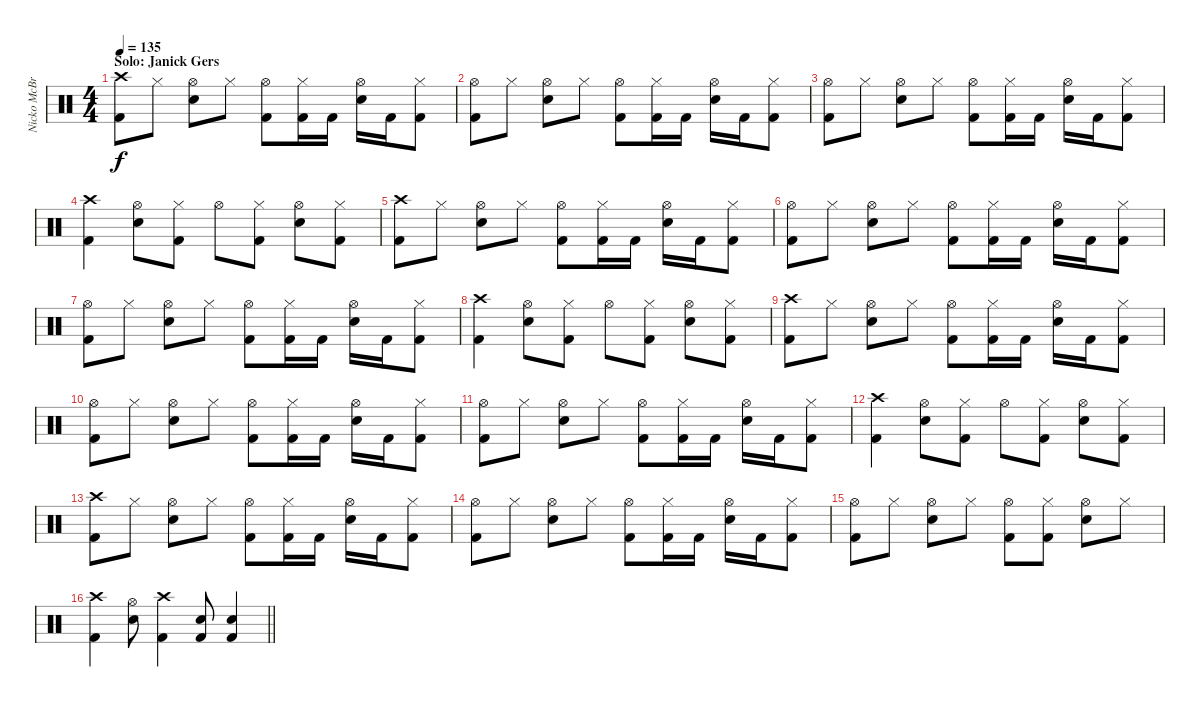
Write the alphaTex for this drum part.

\track ("Nicko McBrain" "Nicko McBr") {instrument percussion}
\staff {score}
\articulation defaults
\ts (4 4)
\section ("" "Solo: Janick Gers")
\tempo 135
\clef neutral
\ks c
("Crash high (hit)" "Kick (hit) 2").8{dy f} "Hi-Hat (closed)".8 ("Hi-Hat (open)" "Electric Snare (hit)").8 "Hi-Hat (closed)".8 ("Hi-Hat (open)" "Kick (hit) 2").8 ("Hi-Hat (closed)" "Kick (hit) 2").16 "Kick (hit) 2".16 ("Hi-Hat (open)" "Electric Snare (hit)").16 "Kick (hit) 2".16 ("Hi-Hat (closed)" "Kick (hit) 2").8 |
("Hi-Hat (open)" "Kick (hit) 2").8 "Hi-Hat (closed)".8 ("Hi-Hat (open)" "Electric Snare (hit)").8 "Hi-Hat (closed)".8 ("Hi-Hat (open)" "Kick (hit) 2").8 ("Hi-Hat (closed)" "Kick (hit) 2").16 "Kick (hit) 2".16 ("Hi-Hat (open)" "Electric Snare (hit)").16 "Kick (hit) 2".16 ("Hi-Hat (closed)" "Kick (hit) 2").8 |
("Hi-Hat (open)" "Kick (hit) 2").8 "Hi-Hat (closed)".8 ("Hi-Hat (open)" "Electric Snare (hit)").8 "Hi-Hat (closed)".8 ("Hi-Hat (open)" "Kick (hit) 2").8 ("Hi-Hat (closed)" "Kick (hit) 2").16 "Kick (hit) 2".16 ("Hi-Hat (open)" "Electric Snare (hit)").16 "Kick (hit) 2".16 ("Hi-Hat (closed)" "Kick (hit) 2").8 |
("Crash high (hit)" "Kick (hit) 2").4 ("Hi-Hat (open)" "Electric Snare (hit)").8 ("Hi-Hat (closed)" "Kick (hit) 2").8 "Hi-Hat (open)".8 ("Hi-Hat (closed)" "Kick (hit) 2").8 ("Hi-Hat (open)" "Electric Snare (hit)").8 ("Hi-Hat (closed)" "Kick (hit) 2").8 |
("Crash high (hit)" "Kick (hit) 2").8 "Hi-Hat (closed)".8 ("Hi-Hat (open)" "Electric Snare (hit)").8 "Hi-Hat (closed)".8 ("Hi-Hat (open)" "Kick (hit) 2").8 ("Hi-Hat (closed)" "Kick (hit) 2").16 "Kick (hit) 2".16 ("Hi-Hat (open)" "Electric Snare (hit)").16 "Kick (hit) 2".16 ("Hi-Hat (closed)" "Kick (hit) 2").8 |
("Hi-Hat (open)" "Kick (hit) 2").8 "Hi-Hat (closed)".8 ("Hi-Hat (open)" "Electric Snare (hit)").8 "Hi-Hat (closed)".8 ("Hi-Hat (open)" "Kick (hit) 2").8 ("Hi-Hat (closed)" "Kick (hit) 2").16 "Kick (hit) 2".16 ("Hi-Hat (open)" "Electric Snare (hit)").16 "Kick (hit) 2".16 ("Hi-Hat (closed)" "Kick (hit) 2").8 |
("Hi-Hat (open)" "Kick (hit) 2").8 "Hi-Hat (closed)".8 ("Hi-Hat (open)" "Electric Snare (hit)").8 "Hi-Hat (closed)".8 ("Hi-Hat (open)" "Kick (hit) 2").8 ("Hi-Hat (closed)" "Kick (hit) 2").16 "Kick (hit) 2".16 ("Hi-Hat (open)" "Electric Snare (hit)").16 "Kick (hit) 2".16 ("Hi-Hat (closed)" "Kick (hit) 2").8 |
("Crash high (hit)" "Kick (hit) 2").4 ("Hi-Hat (open)" "Electric Snare (hit)").8 ("Hi-Hat (closed)" "Kick (hit) 2").8 "Hi-Hat (open)".8 ("Hi-Hat (closed)" "Kick (hit) 2").8 ("Hi-Hat (open)" "Electric Snare (hit)").8 ("Hi-Hat (closed)" "Kick (hit) 2").8 |
("Crash high (hit)" "Kick (hit) 2").8 "Hi-Hat (closed)".8 ("Hi-Hat (open)" "Electric Snare (hit)").8 "Hi-Hat (closed)".8 ("Hi-Hat (open)" "Kick (hit) 2").8 ("Hi-Hat (closed)" "Kick (hit) 2").16 "Kick (hit) 2".16 ("Hi-Hat (open)" "Electric Snare (hit)").16 "Kick (hit) 2".16 ("Hi-Hat (closed)" "Kick (hit) 2").8 |
("Hi-Hat (open)" "Kick (hit) 2").8 "Hi-Hat (closed)".8 ("Hi-Hat (open)" "Electric Snare (hit)").8 "Hi-Hat (closed)".8 ("Hi-Hat (open)" "Kick (hit) 2").8 ("Hi-Hat (closed)" "Kick (hit) 2").16 "Kick (hit) 2".16 ("Hi-Hat (open)" "Electric Snare (hit)").16 "Kick (hit) 2".16 ("Hi-Hat (closed)" "Kick (hit) 2").8 |
("Hi-Hat (open)" "Kick (hit) 2").8 "Hi-Hat (closed)".8 ("Hi-Hat (open)" "Electric Snare (hit)").8 "Hi-Hat (closed)".8 ("Hi-Hat (open)" "Kick (hit) 2").8 ("Hi-Hat (closed)" "Kick (hit) 2").16 "Kick (hit) 2".16 ("Hi-Hat (open)" "Electric Snare (hit)").16 "Kick (hit) 2".16 ("Hi-Hat (closed)" "Kick (hit) 2").8 |
("Crash high (hit)" "Kick (hit) 2").4 ("Hi-Hat (open)" "Electric Snare (hit)").8 ("Hi-Hat (closed)" "Kick (hit) 2").8 "Hi-Hat (open)".8 ("Hi-Hat (closed)" "Kick (hit) 2").8 ("Hi-Hat (open)" "Electric Snare (hit)").8 ("Hi-Hat (closed)" "Kick (hit) 2").8 |
("Crash high (hit)" "Kick (hit) 2").8 "Hi-Hat (closed)".8 ("Hi-Hat (open)" "Electric Snare (hit)").8 "Hi-Hat (closed)".8 ("Hi-Hat (open)" "Kick (hit) 2").8 ("Hi-Hat (closed)" "Kick (hit) 2").16 "Kick (hit) 2".16 ("Hi-Hat (open)" "Electric Snare (hit)").16 "Kick (hit) 2".16 ("Hi-Hat (closed)" "Kick (hit) 2").8 |
("Hi-Hat (open)" "Kick (hit) 2").8 "Hi-Hat (closed)".8 ("Hi-Hat (open)" "Electric Snare (hit)").8 "Hi-Hat (closed)".8 ("Hi-Hat (open)" "Kick (hit) 2").8 ("Hi-Hat (closed)" "Kick (hit) 2").16 "Kick (hit) 2".16 ("Hi-Hat (open)" "Electric Snare (hit)").16 "Kick (hit) 2".16 ("Hi-Hat (closed)" "Kick (hit) 2").8 |
("Hi-Hat (open)" "Kick (hit) 2").8 "Hi-Hat (closed)".8 ("Hi-Hat (open)" "Electric Snare (hit)").8 "Hi-Hat (closed)".8 ("Hi-Hat (open)" "Kick (hit) 2").8 ("Hi-Hat (closed)" "Kick (hit) 2").8 ("Hi-Hat (open)" "Electric Snare (hit)").8 "Hi-Hat (closed)".8 |
\barLineRight lightlight
("Crash high (hit)" "Kick (hit) 2").4 ("Hi-Hat (open)" "Electric Snare (hit)").8 ("Crash high (hit)" "Kick (hit) 2").4 ("Electric Snare (hit)" "Kick (hit) 2").8 ("Electric Snare (hit)" "Kick (hit) 2").4
